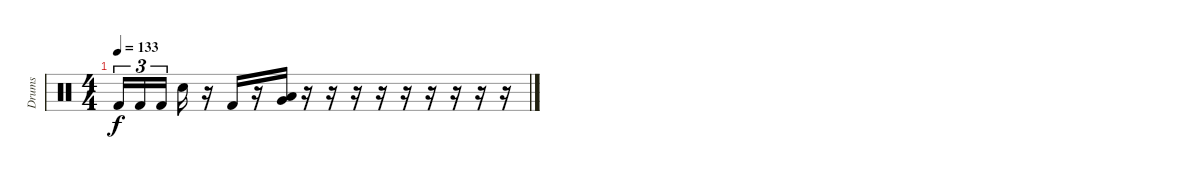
\track ("Drums" "Drums") {instrument percussion}
\staff {score}
\articulation defaults
\ts (4 4)
\tempo 133
\clef neutral
\ks c "Kick (hit) 2".16{tu (3 2) dy f} "Kick (hit) 2".16{tu (3 2)} "Kick (hit) 2".16{tu (3 2) beam splitsecondary} "Snare (hit) 2".16
r.16 "Kick (hit) 2".16 r.16 ("Very Low Tom (hit)" "Low Floor Tom (hit)").16 r.16 r.16 r.16 r.16 r.16 r.16 r.16 r.16 r.16
